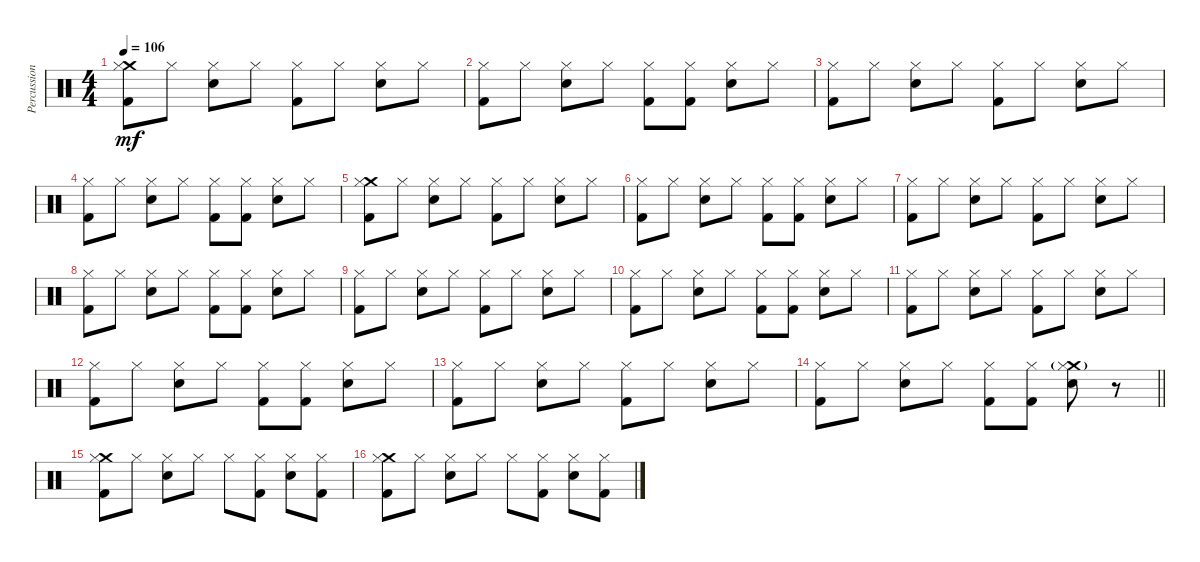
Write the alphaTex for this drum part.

\track ("Percussion" "Percussion") {instrument percussion}
\staff {score}
\articulation defaults
\ts (4 4)
\tempo 106
\clef neutral
\ks c
("Crash medium (hit)" "Hi-Hat (closed)" "Kick (hit) 2").8{dy mf} "Hi-Hat (closed)".8 ("Hi-Hat (closed)" "Electric Snare (hit)").8 "Hi-Hat (closed)".8 ("Hi-Hat (closed)" "Kick (hit) 2").8 "Hi-Hat (closed)".8 ("Hi-Hat (closed)" "Electric Snare (hit)").8 "Hi-Hat (closed)".8 |
("Hi-Hat (closed)" "Kick (hit) 2").8 "Hi-Hat (closed)".8 ("Hi-Hat (closed)" "Electric Snare (hit)").8 "Hi-Hat (closed)".8 ("Hi-Hat (closed)" "Kick (hit) 2").8 ("Hi-Hat (closed)" "Kick (hit) 2").8 ("Hi-Hat (closed)" "Electric Snare (hit)").8 "Hi-Hat (closed)".8 |
("Hi-Hat (closed)" "Kick (hit) 2").8 "Hi-Hat (closed)".8 ("Hi-Hat (closed)" "Electric Snare (hit)").8 "Hi-Hat (closed)".8 ("Hi-Hat (closed)" "Kick (hit) 2").8 "Hi-Hat (closed)".8 ("Hi-Hat (closed)" "Electric Snare (hit)").8 "Hi-Hat (closed)".8 |
("Hi-Hat (closed)" "Kick (hit) 2").8 "Hi-Hat (closed)".8 ("Hi-Hat (closed)" "Electric Snare (hit)").8 "Hi-Hat (closed)".8 ("Hi-Hat (closed)" "Kick (hit) 2").8 ("Hi-Hat (closed)" "Kick (hit) 2").8 ("Hi-Hat (closed)" "Electric Snare (hit)").8 "Hi-Hat (closed)".8 |
("Crash medium (hit)" "Hi-Hat (closed)" "Kick (hit) 2").8 "Hi-Hat (closed)".8 ("Hi-Hat (closed)" "Electric Snare (hit)").8 "Hi-Hat (closed)".8 ("Hi-Hat (closed)" "Kick (hit) 2").8 "Hi-Hat (closed)".8 ("Hi-Hat (closed)" "Electric Snare (hit)").8 "Hi-Hat (closed)".8 |
("Hi-Hat (closed)" "Kick (hit) 2").8 "Hi-Hat (closed)".8 ("Hi-Hat (closed)" "Electric Snare (hit)").8 "Hi-Hat (closed)".8 ("Hi-Hat (closed)" "Kick (hit) 2").8 ("Hi-Hat (closed)" "Kick (hit) 2").8 ("Hi-Hat (closed)" "Electric Snare (hit)").8 "Hi-Hat (closed)".8 |
("Hi-Hat (closed)" "Kick (hit) 2").8 "Hi-Hat (closed)".8 ("Hi-Hat (closed)" "Electric Snare (hit)").8 "Hi-Hat (closed)".8 ("Hi-Hat (closed)" "Kick (hit) 2").8 "Hi-Hat (closed)".8 ("Hi-Hat (closed)" "Electric Snare (hit)").8 "Hi-Hat (closed)".8 |
("Hi-Hat (closed)" "Kick (hit) 2").8 "Hi-Hat (closed)".8 ("Hi-Hat (closed)" "Electric Snare (hit)").8 "Hi-Hat (closed)".8 ("Hi-Hat (closed)" "Kick (hit) 2").8 ("Hi-Hat (closed)" "Kick (hit) 2").8 ("Hi-Hat (closed)" "Electric Snare (hit)").8 "Hi-Hat (closed)".8 |
("Hi-Hat (closed)" "Kick (hit) 2").8 "Hi-Hat (closed)".8 ("Hi-Hat (closed)" "Electric Snare (hit)").8 "Hi-Hat (closed)".8 ("Hi-Hat (closed)" "Kick (hit) 2").8 "Hi-Hat (closed)".8 ("Hi-Hat (closed)" "Electric Snare (hit)").8 "Hi-Hat (closed)".8 |
("Hi-Hat (closed)" "Kick (hit) 2").8 "Hi-Hat (closed)".8 ("Hi-Hat (closed)" "Electric Snare (hit)").8 "Hi-Hat (closed)".8 ("Hi-Hat (closed)" "Kick (hit) 2").8 ("Hi-Hat (closed)" "Kick (hit) 2").8 ("Hi-Hat (closed)" "Electric Snare (hit)").8 "Hi-Hat (closed)".8 |
("Hi-Hat (closed)" "Kick (hit) 2").8 "Hi-Hat (closed)".8 ("Hi-Hat (closed)" "Electric Snare (hit)").8 "Hi-Hat (closed)".8 ("Hi-Hat (closed)" "Kick (hit) 2").8 "Hi-Hat (closed)".8 ("Hi-Hat (closed)" "Electric Snare (hit)").8 "Hi-Hat (closed)".8 |
("Hi-Hat (closed)" "Kick (hit) 2").8 "Hi-Hat (closed)".8 ("Hi-Hat (closed)" "Electric Snare (hit)").8 "Hi-Hat (closed)".8 ("Hi-Hat (closed)" "Kick (hit) 2").8 ("Hi-Hat (closed)" "Kick (hit) 2").8 ("Hi-Hat (closed)" "Electric Snare (hit)").8 "Hi-Hat (closed)".8 |
("Hi-Hat (closed)" "Kick (hit) 2").8 "Hi-Hat (closed)".8 ("Hi-Hat (closed)" "Electric Snare (hit)").8 "Hi-Hat (closed)".8 ("Hi-Hat (closed)" "Kick (hit) 2").8 "Hi-Hat (closed)".8 ("Hi-Hat (closed)" "Electric Snare (hit)").8 "Hi-Hat (closed)".8 |
\barLineRight lightlight
("Hi-Hat (closed)" "Kick (hit) 2").8 "Hi-Hat (closed)".8 ("Hi-Hat (closed)" "Electric Snare (hit)").8 "Hi-Hat (closed)".8 ("Hi-Hat (closed)" "Kick (hit) 2").8 ("Hi-Hat (closed)" "Kick (hit) 2").8 ("Crash medium (hit)"{g} "Hi-Hat (closed)" "Electric Snare (hit)").8 r.8 |
("Crash medium (hit)" "Hi-Hat (closed)" "Kick (hit) 2").8 "Hi-Hat (closed)".8 ("Hi-Hat (closed)" "Electric Snare (hit)").8 "Hi-Hat (closed)".8 "Hi-Hat (closed)".8 ("Hi-Hat (closed)" "Kick (hit) 2").8 ("Hi-Hat (closed)" "Electric Snare (hit)").8 ("Hi-Hat (closed)" "Kick (hit) 2").8 |
("Crash medium (hit)" "Hi-Hat (closed)" "Kick (hit) 2").8 "Hi-Hat (closed)".8 ("Hi-Hat (closed)" "Electric Snare (hit)").8 "Hi-Hat (closed)".8 "Hi-Hat (closed)".8 ("Hi-Hat (closed)" "Kick (hit) 2").8 ("Hi-Hat (closed)" "Electric Snare (hit)").8 ("Hi-Hat (closed)" "Kick (hit) 2").8
